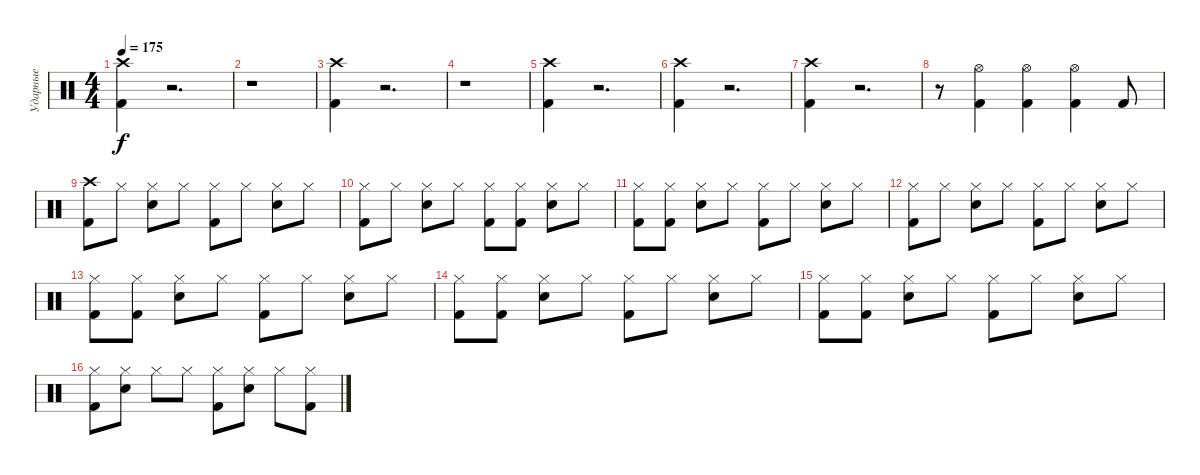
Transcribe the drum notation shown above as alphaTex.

\track ("Ударные" "Ударные") {instrument percussion}
\staff
\articulation defaults
\ts (4 4)
\tempo 175
\clef neutral
\ks c
("Kick (hit) 2" "Crash high (hit)").4{dy f} r.2{d} |
r.1 |
("Kick (hit) 2" "Crash high (hit)").4 r.2{d} |
r.1 |
("Kick (hit) 2" "Crash high (hit)").4 r.2{d} |
("Kick (hit) 2" "Crash high (hit)").4 r.2{d} |
("Kick (hit) 2" "Crash high (hit)").4 r.2{d} |
r.8 ("Kick (hit) 2" "Hi-Hat (open)").4 ("Kick (hit) 2" "Hi-Hat (open)").4 ("Kick (hit) 2" "Hi-Hat (open)").4 "Kick (hit) 2".8 |
("Kick (hit) 2" "Crash high (hit)").8 "Hi-Hat (closed)".8 ("Snare (hit) 2" "Hi-Hat (closed)").8 "Hi-Hat (closed)".8 ("Kick (hit) 2" "Hi-Hat (closed)").8 "Hi-Hat (closed)".8 ("Snare (hit) 2" "Hi-Hat (closed)").8 "Hi-Hat (closed)".8 |
("Kick (hit) 2" "Hi-Hat (closed)").8 "Hi-Hat (closed)".8 ("Snare (hit) 2" "Hi-Hat (closed)").8 "Hi-Hat (closed)".8 ("Kick (hit) 2" "Hi-Hat (closed)").8 ("Kick (hit) 2" "Hi-Hat (closed)").8 ("Snare (hit) 2" "Hi-Hat (closed)").8 "Hi-Hat (closed)".8 |
("Kick (hit) 2" "Hi-Hat (closed)").8 ("Kick (hit) 2" "Hi-Hat (closed)").8 ("Snare (hit) 2" "Hi-Hat (closed)").8 "Hi-Hat (closed)".8 ("Kick (hit) 2" "Hi-Hat (closed)").8 "Hi-Hat (closed)".8 ("Snare (hit) 2" "Hi-Hat (closed)").8 "Hi-Hat (closed)".8 |
("Kick (hit) 2" "Hi-Hat (closed)").8 "Hi-Hat (closed)".8 ("Snare (hit) 2" "Hi-Hat (closed)").8 "Hi-Hat (closed)".8 ("Kick (hit) 2" "Hi-Hat (closed)").8 "Hi-Hat (closed)".8 ("Snare (hit) 2" "Hi-Hat (closed)").8 "Hi-Hat (closed)".8 |
("Kick (hit) 2" "Hi-Hat (closed)").8 ("Kick (hit) 2" "Hi-Hat (closed)").8 ("Snare (hit) 2" "Hi-Hat (closed)").8 "Hi-Hat (closed)".8 ("Kick (hit) 2" "Hi-Hat (closed)").8 "Hi-Hat (closed)".8 ("Snare (hit) 2" "Hi-Hat (closed)").8 "Hi-Hat (closed)".8 |
("Kick (hit) 2" "Hi-Hat (closed)").8 ("Kick (hit) 2" "Hi-Hat (closed)").8 ("Snare (hit) 2" "Hi-Hat (closed)").8 "Hi-Hat (closed)".8 ("Kick (hit) 2" "Hi-Hat (closed)").8 "Hi-Hat (closed)".8 ("Snare (hit) 2" "Hi-Hat (closed)").8 "Hi-Hat (closed)".8 |
("Kick (hit) 2" "Hi-Hat (closed)").8 ("Kick (hit) 2" "Hi-Hat (closed)").8 ("Snare (hit) 2" "Hi-Hat (closed)").8 "Hi-Hat (closed)".8 ("Kick (hit) 2" "Hi-Hat (closed)").8 "Hi-Hat (closed)".8 ("Snare (hit) 2" "Hi-Hat (closed)").8 "Hi-Hat (closed)".8 |
("Kick (hit) 2" "Hi-Hat (closed)").8 ("Snare (hit) 2" "Hi-Hat (closed)").8 "Hi-Hat (closed)".8 "Hi-Hat (closed)".8 ("Kick (hit) 2" "Hi-Hat (closed)").8 ("Snare (hit) 2" "Hi-Hat (closed)").8 "Hi-Hat (closed)".8 ("Kick (hit) 2" "Hi-Hat (closed)").8
